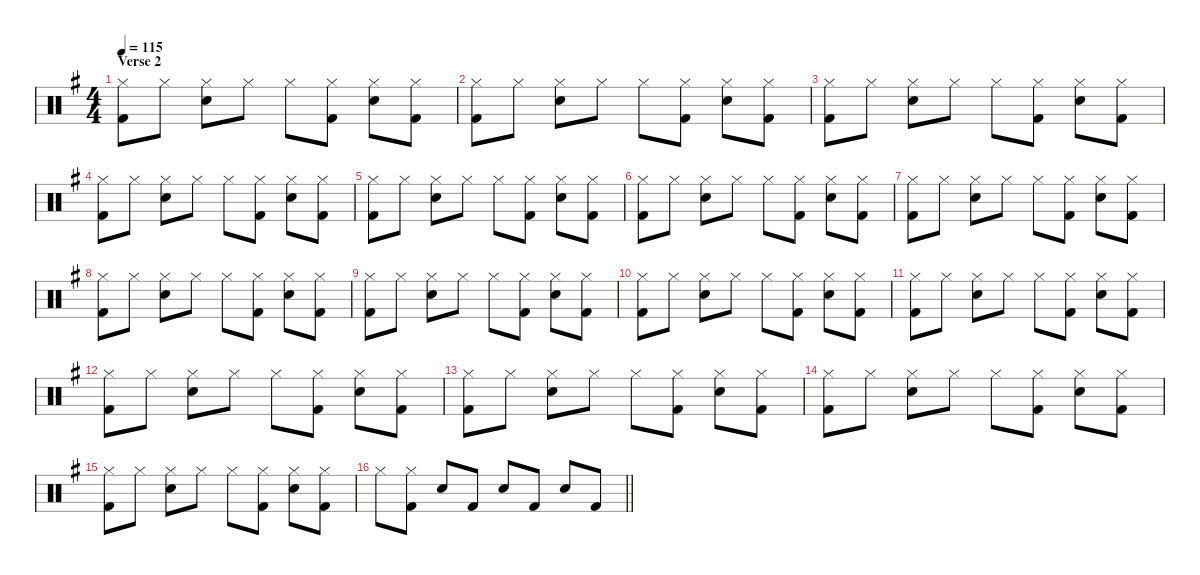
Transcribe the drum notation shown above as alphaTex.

\defaultSystemsLayout 8
\hideDynamics
\bracketExtendMode nobrackets
\singleTrackTrackNamePolicy hidden
\multiTrackTrackNamePolicy hidden
\otherSystemsTrackNameOrientation horizontal
\track ("Drums" "drm.") {defaultSystemsLayout 4 instrument percussion}
\staff {score}
\articulation defaults
\ts (4 4)
\section ("" "Verse 2")
\tempo 115
\clef neutral
\ks g
("Hi-Hat (closed)"{acc forcenatural} "Kick (hit) 2"{acc forcenatural}).8{dy f beam Down} "Hi-Hat (closed)"{acc forcenatural}.8{beam Down} ("Hi-Hat (closed)"{acc forcenatural} "Snare (hit) 2"{acc forcenatural}).8{beam Down} "Hi-Hat (closed)"{acc forcenatural}.8{beam Down} "Hi-Hat (closed)"{acc forcenatural}.8{beam Down} ("Hi-Hat (closed)"{acc forcenatural} "Kick (hit) 2"{acc forcenatural}).8{beam Down} ("Hi-Hat (closed)"{acc forcenatural} "Snare (hit) 2"{acc forcenatural}).8{beam Down} ("Hi-Hat (closed)"{acc forcenatural} "Kick (hit) 2"{acc forcenatural}).8{beam Down} |
("Hi-Hat (closed)"{acc forcenatural} "Kick (hit) 2"{acc forcenatural}).8{beam Down} "Hi-Hat (closed)"{acc forcenatural}.8{beam Down} ("Hi-Hat (closed)"{acc forcenatural} "Snare (hit) 2"{acc forcenatural}).8{beam Down} "Hi-Hat (closed)"{acc forcenatural}.8{beam Down} "Hi-Hat (closed)"{acc forcenatural}.8{beam Down} ("Hi-Hat (closed)"{acc forcenatural} "Kick (hit) 2"{acc forcenatural}).8{beam Down} ("Hi-Hat (closed)"{acc forcenatural} "Snare (hit) 2"{acc forcenatural}).8{beam Down} ("Hi-Hat (closed)"{acc forcenatural} "Kick (hit) 2"{acc forcenatural}).8{beam Down} |
("Hi-Hat (closed)"{acc forcenatural} "Kick (hit) 2"{acc forcenatural}).8{beam Down} "Hi-Hat (closed)"{acc forcenatural}.8{beam Down} ("Hi-Hat (closed)"{acc forcenatural} "Snare (hit) 2"{acc forcenatural}).8{beam Down} "Hi-Hat (closed)"{acc forcenatural}.8{beam Down} "Hi-Hat (closed)"{acc forcenatural}.8{beam Down} ("Hi-Hat (closed)"{acc forcenatural} "Kick (hit) 2"{acc forcenatural}).8{beam Down} ("Hi-Hat (closed)"{acc forcenatural} "Snare (hit) 2"{acc forcenatural}).8{beam Down} ("Hi-Hat (closed)"{acc forcenatural} "Kick (hit) 2"{acc forcenatural}).8{beam Down} |
("Hi-Hat (closed)"{acc forcenatural} "Kick (hit) 2"{acc forcenatural}).8{beam Down} "Hi-Hat (closed)"{acc forcenatural}.8{beam Down} ("Hi-Hat (closed)"{acc forcenatural} "Snare (hit) 2"{acc forcenatural}).8{beam Down} "Hi-Hat (closed)"{acc forcenatural}.8{beam Down} "Hi-Hat (closed)"{acc forcenatural}.8{beam Down} ("Hi-Hat (closed)"{acc forcenatural} "Kick (hit) 2"{acc forcenatural}).8{beam Down} ("Hi-Hat (closed)"{acc forcenatural} "Snare (hit) 2"{acc forcenatural}).8{beam Down} ("Hi-Hat (closed)"{acc forcenatural} "Kick (hit) 2"{acc forcenatural}).8{beam Down} |
("Hi-Hat (closed)"{acc forcenatural} "Kick (hit) 2"{acc forcenatural}).8{beam Down} "Hi-Hat (closed)"{acc forcenatural}.8{beam Down} ("Hi-Hat (closed)"{acc forcenatural} "Snare (hit) 2"{acc forcenatural}).8{beam Down} "Hi-Hat (closed)"{acc forcenatural}.8{beam Down} "Hi-Hat (closed)"{acc forcenatural}.8{beam Down} ("Hi-Hat (closed)"{acc forcenatural} "Kick (hit) 2"{acc forcenatural}).8{beam Down} ("Hi-Hat (closed)"{acc forcenatural} "Snare (hit) 2"{acc forcenatural}).8{beam Down} ("Hi-Hat (closed)"{acc forcenatural} "Kick (hit) 2"{acc forcenatural}).8{beam Down} |
("Hi-Hat (closed)"{acc forcenatural} "Kick (hit) 2"{acc forcenatural}).8{beam Down} "Hi-Hat (closed)"{acc forcenatural}.8{beam Down} ("Hi-Hat (closed)"{acc forcenatural} "Snare (hit) 2"{acc forcenatural}).8{beam Down} "Hi-Hat (closed)"{acc forcenatural}.8{beam Down} "Hi-Hat (closed)"{acc forcenatural}.8{beam Down} ("Hi-Hat (closed)"{acc forcenatural} "Kick (hit) 2"{acc forcenatural}).8{beam Down} ("Hi-Hat (closed)"{acc forcenatural} "Snare (hit) 2"{acc forcenatural}).8{beam Down} ("Hi-Hat (closed)"{acc forcenatural} "Kick (hit) 2"{acc forcenatural}).8{beam Down} |
("Hi-Hat (closed)"{acc forcenatural} "Kick (hit) 2"{acc forcenatural}).8{beam Down} "Hi-Hat (closed)"{acc forcenatural}.8{beam Down} ("Hi-Hat (closed)"{acc forcenatural} "Snare (hit) 2"{acc forcenatural}).8{beam Down} "Hi-Hat (closed)"{acc forcenatural}.8{beam Down} "Hi-Hat (closed)"{acc forcenatural}.8{beam Down} ("Hi-Hat (closed)"{acc forcenatural} "Kick (hit) 2"{acc forcenatural}).8{beam Down} ("Hi-Hat (closed)"{acc forcenatural} "Snare (hit) 2"{acc forcenatural}).8{beam Down} ("Hi-Hat (closed)"{acc forcenatural} "Kick (hit) 2"{acc forcenatural}).8{beam Down} |
("Hi-Hat (closed)"{acc forcenatural} "Kick (hit) 2"{acc forcenatural}).8{beam Down} "Hi-Hat (closed)"{acc forcenatural}.8{beam Down} ("Hi-Hat (closed)"{acc forcenatural} "Snare (hit) 2"{acc forcenatural}).8{beam Down} "Hi-Hat (closed)"{acc forcenatural}.8{beam Down} "Hi-Hat (closed)"{acc forcenatural}.8{beam Down} ("Hi-Hat (closed)"{acc forcenatural} "Kick (hit) 2"{acc forcenatural}).8{beam Down} ("Hi-Hat (closed)"{acc forcenatural} "Snare (hit) 2"{acc forcenatural}).8{beam Down} ("Hi-Hat (closed)"{acc forcenatural} "Kick (hit) 2"{acc forcenatural}).8{beam Down} |
("Hi-Hat (closed)"{acc forcenatural} "Kick (hit) 2"{acc forcenatural}).8{beam Down} "Hi-Hat (closed)"{acc forcenatural}.8{beam Down} ("Hi-Hat (closed)"{acc forcenatural} "Snare (hit) 2"{acc forcenatural}).8{beam Down} "Hi-Hat (closed)"{acc forcenatural}.8{beam Down} "Hi-Hat (closed)"{acc forcenatural}.8{beam Down} ("Hi-Hat (closed)"{acc forcenatural} "Kick (hit) 2"{acc forcenatural}).8{beam Down} ("Hi-Hat (closed)"{acc forcenatural} "Snare (hit) 2"{acc forcenatural}).8{beam Down} ("Hi-Hat (closed)"{acc forcenatural} "Kick (hit) 2"{acc forcenatural}).8{beam Down} |
("Hi-Hat (closed)"{acc forcenatural} "Kick (hit) 2"{acc forcenatural}).8{beam Down} "Hi-Hat (closed)"{acc forcenatural}.8{beam Down} ("Hi-Hat (closed)"{acc forcenatural} "Snare (hit) 2"{acc forcenatural}).8{beam Down} "Hi-Hat (closed)"{acc forcenatural}.8{beam Down} "Hi-Hat (closed)"{acc forcenatural}.8{beam Down} ("Hi-Hat (closed)"{acc forcenatural} "Kick (hit) 2"{acc forcenatural}).8{beam Down} ("Hi-Hat (closed)"{acc forcenatural} "Snare (hit) 2"{acc forcenatural}).8{beam Down} ("Hi-Hat (closed)"{acc forcenatural} "Kick (hit) 2"{acc forcenatural}).8{beam Down} |
("Hi-Hat (closed)"{acc forcenatural} "Kick (hit) 2"{acc forcenatural}).8{beam Down} "Hi-Hat (closed)"{acc forcenatural}.8{beam Down} ("Hi-Hat (closed)"{acc forcenatural} "Snare (hit) 2"{acc forcenatural}).8{beam Down} "Hi-Hat (closed)"{acc forcenatural}.8{beam Down} "Hi-Hat (closed)"{acc forcenatural}.8{beam Down} ("Hi-Hat (closed)"{acc forcenatural} "Kick (hit) 2"{acc forcenatural}).8{beam Down} ("Hi-Hat (closed)"{acc forcenatural} "Snare (hit) 2"{acc forcenatural}).8{beam Down} ("Hi-Hat (closed)"{acc forcenatural} "Kick (hit) 2"{acc forcenatural}).8{beam Down} |
("Hi-Hat (closed)"{acc forcenatural} "Kick (hit) 2"{acc forcenatural}).8{beam Down} "Hi-Hat (closed)"{acc forcenatural}.8{beam Down} ("Hi-Hat (closed)"{acc forcenatural} "Snare (hit) 2"{acc forcenatural}).8{beam Down} "Hi-Hat (closed)"{acc forcenatural}.8{beam Down} "Hi-Hat (closed)"{acc forcenatural}.8{beam Down} ("Hi-Hat (closed)"{acc forcenatural} "Kick (hit) 2"{acc forcenatural}).8{beam Down} ("Hi-Hat (closed)"{acc forcenatural} "Snare (hit) 2"{acc forcenatural}).8{beam Down} ("Hi-Hat (closed)"{acc forcenatural} "Kick (hit) 2"{acc forcenatural}).8{beam Down} |
("Hi-Hat (closed)"{acc forcenatural} "Kick (hit) 2"{acc forcenatural}).8{beam Down} "Hi-Hat (closed)"{acc forcenatural}.8{beam Down} ("Hi-Hat (closed)"{acc forcenatural} "Snare (hit) 2"{acc forcenatural}).8{beam Down} "Hi-Hat (closed)"{acc forcenatural}.8{beam Down} "Hi-Hat (closed)"{acc forcenatural}.8{beam Down} ("Hi-Hat (closed)"{acc forcenatural} "Kick (hit) 2"{acc forcenatural}).8{beam Down} ("Hi-Hat (closed)"{acc forcenatural} "Snare (hit) 2"{acc forcenatural}).8{beam Down} ("Hi-Hat (closed)"{acc forcenatural} "Kick (hit) 2"{acc forcenatural}).8{beam Down} |
("Hi-Hat (closed)"{acc forcenatural} "Kick (hit) 2"{acc forcenatural}).8{beam Down} "Hi-Hat (closed)"{acc forcenatural}.8{beam Down} ("Hi-Hat (closed)"{acc forcenatural} "Snare (hit) 2"{acc forcenatural}).8{beam Down} "Hi-Hat (closed)"{acc forcenatural}.8{beam Down} "Hi-Hat (closed)"{acc forcenatural}.8{beam Down} ("Hi-Hat (closed)"{acc forcenatural} "Kick (hit) 2"{acc forcenatural}).8{beam Down} ("Hi-Hat (closed)"{acc forcenatural} "Snare (hit) 2"{acc forcenatural}).8{beam Down} ("Hi-Hat (closed)"{acc forcenatural} "Kick (hit) 2"{acc forcenatural}).8{beam Down} |
("Hi-Hat (closed)"{acc forcenatural} "Kick (hit) 2"{acc forcenatural}).8{beam Down} "Hi-Hat (closed)"{acc forcenatural}.8{beam Down} ("Hi-Hat (closed)"{acc forcenatural} "Snare (hit) 2"{acc forcenatural}).8{beam Down} "Hi-Hat (closed)"{acc forcenatural}.8{beam Down} "Hi-Hat (closed)"{acc forcenatural}.8{beam Down} ("Hi-Hat (closed)"{acc forcenatural} "Kick (hit) 2"{acc forcenatural}).8{beam Down} ("Hi-Hat (closed)"{acc forcenatural} "Snare (hit) 2"{acc forcenatural}).8{beam Down} ("Hi-Hat (closed)"{acc forcenatural} "Kick (hit) 2"{acc forcenatural}).8{beam Down} |
\barLineRight lightlight "Hi-Hat (closed)"{acc forcenatural}.8{beam Down}
("Hi-Hat (closed)"{acc forcenatural} "Kick (hit) 2"{acc forcenatural}).8{beam Down} "Snare (hit) 2"{acc forcenatural}.8{beam Up} "Kick (hit) 2"{acc forcenatural}.8{beam Up} "Snare (hit) 2"{acc forcenatural}.8{beam Up} "Kick (hit) 2"{acc forcenatural}.8{beam Up} "Snare (hit) 2"{acc forcenatural}.8{beam Up} "Kick (hit) 2"{acc forcenatural}.8{beam Up}
